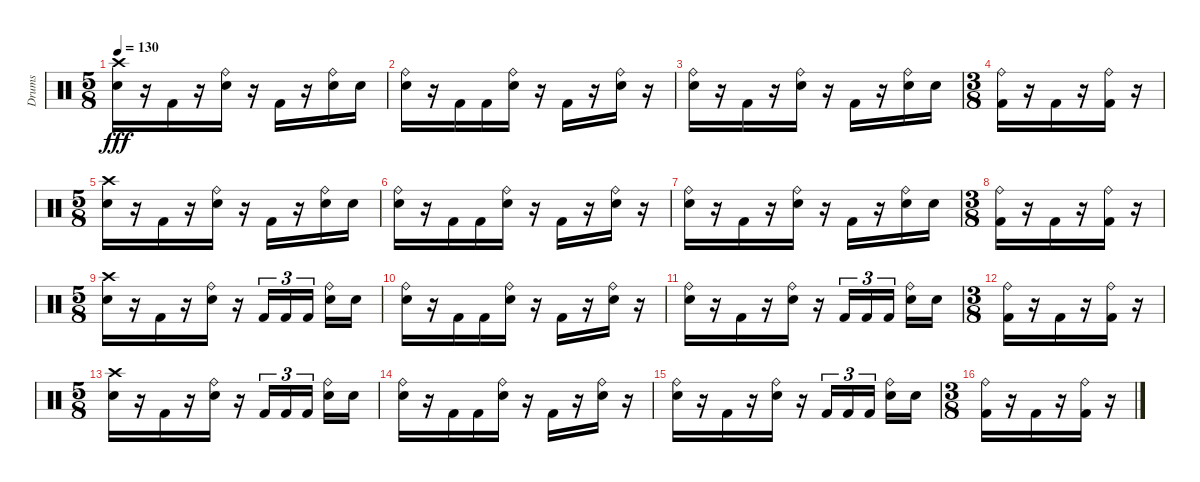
\track ("Drums" "Drums") {instrument percussion}
\staff {score}
\articulation defaults
\ts (5 8)
\tempo 130
\clef neutral
\ks c
("Crash high (hit)" "Electric Snare (hit)").16{dy fff} r.16 "Kick (hit) 2".16 r.16 ("Ride (bell)" "Electric Snare (hit)").16 r.16 "Kick (hit) 2".16 r.16 ("Ride (bell)" "Electric Snare (hit)").16 "Electric Snare (hit)".16 |
("Ride (bell)" "Electric Snare (hit)").16 r.16 "Kick (hit) 2".16 "Kick (hit) 2".16 ("Ride (bell)" "Electric Snare (hit)").16 r.16 "Kick (hit) 2".16 r.16 ("Ride (bell)" "Electric Snare (hit)").16 r.16 |
("Ride (bell)" "Electric Snare (hit)").16 r.16 "Kick (hit) 2".16 r.16 ("Ride (bell)" "Electric Snare (hit)").16 r.16 "Kick (hit) 2".16 r.16 ("Ride (bell)" "Electric Snare (hit)").16 "Electric Snare (hit)".16 |
\ts (3 8)
("Ride (bell)" "Kick (hit) 2").16 r.16 "Kick (hit) 2".16 r.16 ("Ride (bell)" "Kick (hit) 2").16 r.16 |
\ts (5 8)
("Electric Snare (hit)" "Crash high (hit)").16 r.16 "Kick (hit) 2".16 r.16 ("Electric Snare (hit)" "Ride (bell)").16 r.16 "Kick (hit) 2".16 r.16 ("Electric Snare (hit)" "Ride (bell)").16 "Electric Snare (hit)".16 |
("Electric Snare (hit)" "Ride (bell)").16 r.16 "Kick (hit) 2".16 "Kick (hit) 2".16 ("Electric Snare (hit)" "Ride (bell)").16 r.16 "Kick (hit) 2".16 r.16 ("Electric Snare (hit)" "Ride (bell)").16 r.16 |
("Electric Snare (hit)" "Ride (bell)").16 r.16 "Kick (hit) 2".16 r.16 ("Electric Snare (hit)" "Ride (bell)").16 r.16 "Kick (hit) 2".16 r.16 ("Electric Snare (hit)" "Ride (bell)").16 "Electric Snare (hit)".16 |
\ts (3 8)
("Kick (hit) 2" "Ride (bell)").16 r.16 "Kick (hit) 2".16 r.16 ("Kick (hit) 2" "Ride (bell)").16 r.16 |
\ts (5 8)
("Electric Snare (hit)" "Crash high (hit)").16 r.16 "Kick (hit) 2".16 r.16 ("Electric Snare (hit)" "Ride (bell)").16 r.16 "Kick (hit) 2".16{tu (3 2)} "Kick (hit) 2".16{tu (3 2)} "Kick (hit) 2".16{tu (3 2)} ("Electric Snare (hit)" "Ride (bell)").16 "Electric Snare (hit)".16 |
("Electric Snare (hit)" "Ride (bell)").16 r.16 "Kick (hit) 2".16 "Kick (hit) 2".16 ("Electric Snare (hit)" "Ride (bell)").16 r.16 "Kick (hit) 2".16 r.16 ("Electric Snare (hit)" "Ride (bell)").16 r.16 |
("Electric Snare (hit)" "Ride (bell)").16 r.16 "Kick (hit) 2".16 r.16 ("Electric Snare (hit)" "Ride (bell)").16 r.16 "Kick (hit) 2".16{tu (3 2)} "Kick (hit) 2".16{tu (3 2)} "Kick (hit) 2".16{tu (3 2)} ("Electric Snare (hit)" "Ride (bell)").16 "Electric Snare (hit)".16 |
\ts (3 8)
("Kick (hit) 2" "Ride (bell)").16 r.16 "Kick (hit) 2".16 r.16 ("Kick (hit) 2" "Ride (bell)").16 r.16 |
\ts (5 8)
("Crash high (hit)" "Electric Snare (hit)").16 r.16 "Kick (hit) 2".16 r.16 ("Ride (bell)" "Electric Snare (hit)").16 r.16 "Kick (hit) 2".16{tu (3 2)} "Kick (hit) 2".16{tu (3 2)} "Kick (hit) 2".16{tu (3 2)} ("Ride (bell)" "Electric Snare (hit)").16 "Electric Snare (hit)".16 |
("Ride (bell)" "Electric Snare (hit)").16 r.16 "Kick (hit) 2".16 "Kick (hit) 2".16 ("Ride (bell)" "Electric Snare (hit)").16 r.16 "Kick (hit) 2".16 r.16 ("Ride (bell)" "Electric Snare (hit)").16 r.16 |
("Ride (bell)" "Electric Snare (hit)").16 r.16 "Kick (hit) 2".16 r.16 ("Ride (bell)" "Electric Snare (hit)").16 r.16 "Kick (hit) 2".16{tu (3 2)} "Kick (hit) 2".16{tu (3 2)} "Kick (hit) 2".16{tu (3 2)} ("Ride (bell)" "Electric Snare (hit)").16 "Electric Snare (hit)".16 |
\ts (3 8)
("Ride (bell)" "Kick (hit) 2").16 r.16 "Kick (hit) 2".16 r.16 ("Ride (bell)" "Kick (hit) 2").16 r.16
